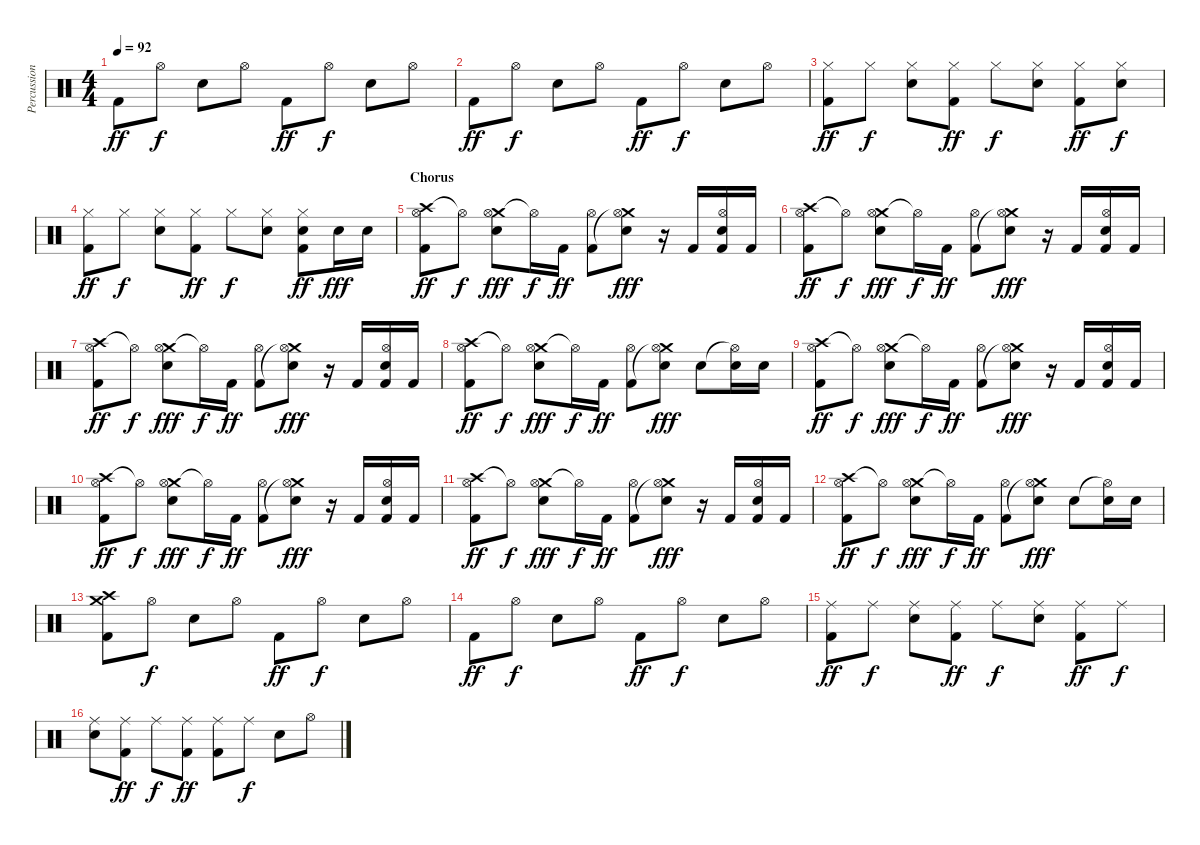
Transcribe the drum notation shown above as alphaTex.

\track ("Percussion" "Percussion") {instrument percussion}
\staff {score}
\articulation defaults
\ts (4 4)
\tempo 92
\clef neutral
\ks c "Kick (hit) 2".8{dy ff} "Hi-Hat (open)".8{dy f} "Snare (hit) 2".8 "Hi-Hat (open)".8 "Kick (hit) 2".8{dy ff} "Hi-Hat (open)".8{dy f} "Snare (hit) 2".8 "Hi-Hat (open)".8
|
"Kick (hit) 2".8{dy ff} "Hi-Hat (open)".8{dy f} "Snare (hit) 2".8 "Hi-Hat (open)".8 "Kick (hit) 2".8{dy ff} "Hi-Hat (open)".8{dy f} "Snare (hit) 2".8 "Hi-Hat (open)".8 |
("Hi-Hat (closed)" "Kick (hit) 2").8{dy ff} "Hi-Hat (closed)".8{dy f} ("Hi-Hat (closed)" "Snare (hit) 2").8 ("Hi-Hat (closed)" "Kick (hit) 2").8{dy ff} "Hi-Hat (closed)".8{dy f} ("Hi-Hat (closed)" "Snare (hit) 2").8 ("Hi-Hat (closed)" "Kick (hit) 2").8{dy ff} ("Hi-Hat (closed)" "Snare (hit) 2").8{dy f} |
("Hi-Hat (closed)" "Kick (hit) 2").8{dy ff} "Hi-Hat (closed)".8{dy f} ("Hi-Hat (closed)" "Snare (hit) 2").8 ("Hi-Hat (closed)" "Kick (hit) 2").8{dy ff} "Hi-Hat (closed)".8{dy f} ("Hi-Hat (closed)" "Snare (hit) 2").8 ("Hi-Hat (closed)" "Snare (hit) 2" "Kick (hit) 2").8{dy ff} "Snare (hit) 2".16{dy fff} "Snare (hit) 2".16 |
\section ("" "Chorus")
("Crash high (hit)" "Hi-Hat (open)" "Kick (hit) 2").8{dy ff} "Hi-Hat (open)"{t}.8{dy f} ("Crash medium (hit)" "Hi-Hat (open)" "Snare (hit) 2").8{dy fff} "Hi-Hat (open)"{t}.16{dy f} "Kick (hit) 2".16{dy ff} ("Hi-Hat (open)" "Kick (hit) 2").8 ("Crash medium (hit)" "Hi-Hat (open)"{t} "Snare (hit) 2").8{dy fff} r.16 "Kick (hit) 2".16 ("Hi-Hat (open)" "Snare (hit) 2" "Kick (hit) 2").16 "Kick (hit) 2".16 |
("Crash high (hit)" "Hi-Hat (open)" "Kick (hit) 2").8{dy ff} "Hi-Hat (open)"{t}.8{dy f} ("Crash medium (hit)" "Hi-Hat (open)" "Snare (hit) 2").8{dy fff} "Hi-Hat (open)"{t}.16{dy f} "Kick (hit) 2".16{dy ff} ("Hi-Hat (open)" "Kick (hit) 2").8 ("Crash medium (hit)" "Hi-Hat (open)"{t} "Snare (hit) 2").8{dy fff} r.16 "Kick (hit) 2".16 ("Hi-Hat (open)" "Snare (hit) 2" "Kick (hit) 2").16 "Kick (hit) 2".16 |
("Crash high (hit)" "Hi-Hat (open)" "Kick (hit) 2").8{dy ff} "Hi-Hat (open)"{t}.8{dy f} ("Crash medium (hit)" "Hi-Hat (open)" "Snare (hit) 2").8{dy fff} "Hi-Hat (open)"{t}.16{dy f} "Kick (hit) 2".16{dy ff} ("Hi-Hat (open)" "Kick (hit) 2").8 ("Crash medium (hit)" "Hi-Hat (open)"{t} "Snare (hit) 2").8{dy fff} r.16 "Kick (hit) 2".16 ("Hi-Hat (open)" "Snare (hit) 2" "Kick (hit) 2").16 "Kick (hit) 2".16 |
("Crash high (hit)" "Hi-Hat (open)" "Kick (hit) 2").8{dy ff} "Hi-Hat (open)"{t}.8{dy f} ("Crash medium (hit)" "Hi-Hat (open)" "Snare (hit) 2").8{dy fff} "Hi-Hat (open)"{t}.16{dy f} "Kick (hit) 2".16{dy ff} ("Hi-Hat (open)" "Kick (hit) 2").8 ("Crash medium (hit)" "Hi-Hat (open)"{t} "Snare (hit) 2").8{dy fff} "Snare (hit) 2".8 ("Hi-Hat (open)"{t} "Snare (hit) 2").16 "Snare (hit) 2".16 |
("Crash high (hit)" "Hi-Hat (open)" "Kick (hit) 2").8{dy ff} "Hi-Hat (open)"{t}.8{dy f} ("Crash medium (hit)" "Hi-Hat (open)" "Snare (hit) 2").8{dy fff} "Hi-Hat (open)"{t}.16{dy f} "Kick (hit) 2".16{dy ff} ("Hi-Hat (open)" "Kick (hit) 2").8 ("Crash medium (hit)" "Hi-Hat (open)"{t} "Snare (hit) 2").8{dy fff} r.16 "Kick (hit) 2".16 ("Hi-Hat (open)" "Snare (hit) 2" "Kick (hit) 2").16 "Kick (hit) 2".16 |
("Crash high (hit)" "Hi-Hat (open)" "Kick (hit) 2").8{dy ff} "Hi-Hat (open)"{t}.8{dy f} ("Crash medium (hit)" "Hi-Hat (open)" "Snare (hit) 2").8{dy fff} "Hi-Hat (open)"{t}.16{dy f} "Kick (hit) 2".16{dy ff} ("Hi-Hat (open)" "Kick (hit) 2").8 ("Crash medium (hit)" "Hi-Hat (open)"{t} "Snare (hit) 2").8{dy fff} r.16 "Kick (hit) 2".16 ("Hi-Hat (open)" "Snare (hit) 2" "Kick (hit) 2").16 "Kick (hit) 2".16 |
("Crash high (hit)" "Hi-Hat (open)" "Kick (hit) 2").8{dy ff} "Hi-Hat (open)"{t}.8{dy f} ("Crash medium (hit)" "Hi-Hat (open)" "Snare (hit) 2").8{dy fff} "Hi-Hat (open)"{t}.16{dy f} "Kick (hit) 2".16{dy ff} ("Hi-Hat (open)" "Kick (hit) 2").8 ("Crash medium (hit)" "Hi-Hat (open)"{t} "Snare (hit) 2").8{dy fff} r.16 "Kick (hit) 2".16 ("Hi-Hat (open)" "Snare (hit) 2" "Kick (hit) 2").16 "Kick (hit) 2".16 |
("Crash high (hit)" "Hi-Hat (open)" "Kick (hit) 2").8{dy ff} "Hi-Hat (open)"{t}.8{dy f} ("Crash medium (hit)" "Hi-Hat (open)" "Snare (hit) 2").8{dy fff} "Hi-Hat (open)"{t}.16{dy f} "Kick (hit) 2".16{dy ff} ("Hi-Hat (open)" "Kick (hit) 2").8 ("Crash medium (hit)" "Hi-Hat (open)"{t} "Snare (hit) 2").8{dy fff} "Snare (hit) 2".8 ("Hi-Hat (open)"{t} "Snare (hit) 2").16 "Snare (hit) 2".16 |
("Crash medium (hit)" "Crash high (hit)" "Kick (hit) 2").8 "Hi-Hat (open)".8{dy f} "Snare (hit) 2".8 "Hi-Hat (open)".8 "Kick (hit) 2".8{dy ff} "Hi-Hat (open)".8{dy f} "Snare (hit) 2".8 "Hi-Hat (open)".8 |
"Kick (hit) 2".8{dy ff} "Hi-Hat (open)".8{dy f} "Snare (hit) 2".8 "Hi-Hat (open)".8 "Kick (hit) 2".8{dy ff} "Hi-Hat (open)".8{dy f} "Snare (hit) 2".8 "Hi-Hat (open)".8 |
("Ride (middle)" "Kick (hit) 2").8{dy ff} "Ride (middle)".8{dy f} ("Ride (middle)" "Snare (hit) 2").8 ("Ride (middle)" "Kick (hit) 2").8{dy ff} "Ride (middle)".8{dy f} ("Ride (middle)" "Snare (hit) 2").8 ("Ride (middle)" "Kick (hit) 2").8{dy ff} "Ride (middle)".8{dy f} |
("Ride (middle)" "Snare (hit) 2").8 ("Ride (middle)" "Kick (hit) 2").8{dy ff} "Ride (middle)".8{dy f} ("Ride (middle)" "Kick (hit) 2").8{dy ff} ("Ride (middle)" "Kick (hit) 2").8 "Ride (middle)".8{dy f} "Snare (hit) 2".8 "Hi-Hat (open)".8
